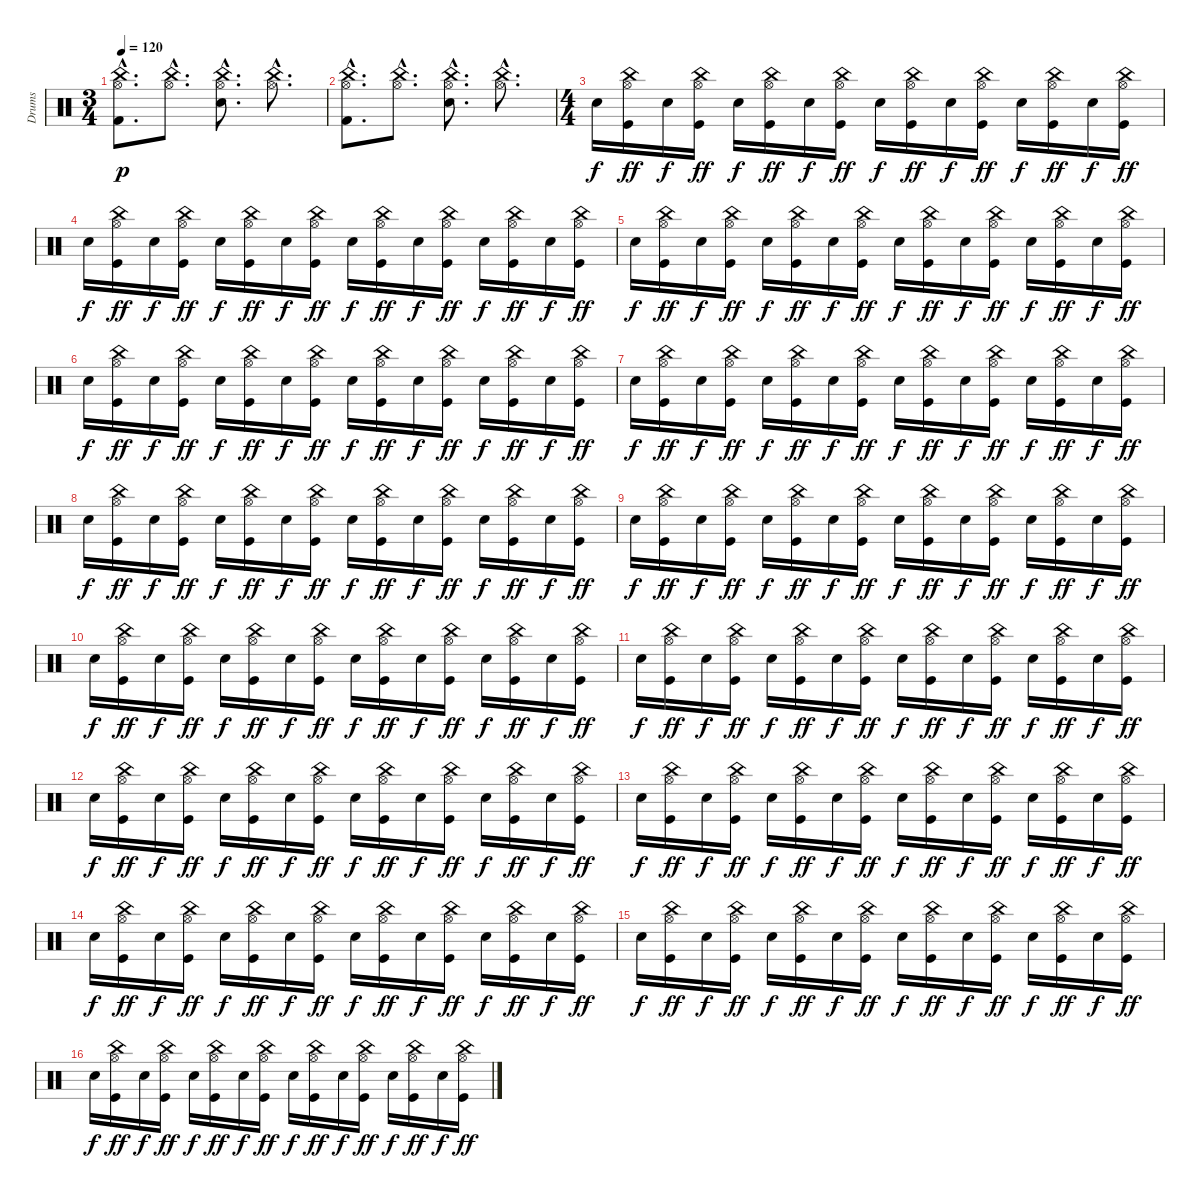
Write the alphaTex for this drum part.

\track ("Drums" "Drums") {instrument percussion}
\staff {score}
\articulation defaults
\ts (3 4)
\tempo 120
\clef neutral
\ks c
("China (hit)"{hac} "Hi-Hat (open)"{hac} "Kick (hit) 2"{hac}).8{d dy p} ("China (hit)"{hac} "Hi-Hat (open)"{hac}).8{d} ("China (hit)"{hac} "Hi-Hat (open)"{hac} "Electric Snare (hit)"{hac}).8{d} ("China (hit)"{hac} "Hi-Hat (open)"{hac}).8{d} |
("China (hit)"{hac} "Hi-Hat (open)"{hac} "Kick (hit) 2"{hac}).8{d} ("China (hit)"{hac} "Hi-Hat (open)"{hac}).8{d} ("China (hit)"{hac} "Hi-Hat (open)"{hac} "Electric Snare (hit)"{hac}).8{d} ("China (hit)"{hac} "Hi-Hat (open)"{hac}).8{d} |
\ts (4 4)
"Electric Snare (hit)".16{dy f} ("China (hit)" "Hi-Hat (open)" "Kick (hit)").16{dy ff} "Electric Snare (hit)".16{dy f} ("China (hit)" "Hi-Hat (open)" "Kick (hit)").16{dy ff} "Electric Snare (hit)".16{dy f} ("China (hit)" "Hi-Hat (open)" "Kick (hit)").16{dy ff} "Electric Snare (hit)".16{dy f} ("China (hit)" "Hi-Hat (open)" "Kick (hit)").16{dy ff} "Electric Snare (hit)".16{dy f} ("China (hit)" "Hi-Hat (open)" "Kick (hit)").16{dy ff} "Electric Snare (hit)".16{dy f} ("China (hit)" "Hi-Hat (open)" "Kick (hit)").16{dy ff} "Electric Snare (hit)".16{dy f} ("China (hit)" "Hi-Hat (open)" "Kick (hit)").16{dy ff} "Electric Snare (hit)".16{dy f} ("China (hit)" "Hi-Hat (open)" "Kick (hit)").16{dy ff} |
"Electric Snare (hit)".16{dy f} ("China (hit)" "Hi-Hat (open)" "Kick (hit)").16{dy ff} "Electric Snare (hit)".16{dy f} ("China (hit)" "Hi-Hat (open)" "Kick (hit)").16{dy ff} "Electric Snare (hit)".16{dy f} ("China (hit)" "Hi-Hat (open)" "Kick (hit)").16{dy ff} "Electric Snare (hit)".16{dy f} ("China (hit)" "Hi-Hat (open)" "Kick (hit)").16{dy ff} "Electric Snare (hit)".16{dy f} ("China (hit)" "Hi-Hat (open)" "Kick (hit)").16{dy ff} "Electric Snare (hit)".16{dy f} ("China (hit)" "Hi-Hat (open)" "Kick (hit)").16{dy ff} "Electric Snare (hit)".16{dy f} ("China (hit)" "Hi-Hat (open)" "Kick (hit)").16{dy ff} "Electric Snare (hit)".16{dy f} ("China (hit)" "Hi-Hat (open)" "Kick (hit)").16{dy ff} |
"Electric Snare (hit)".16{dy f} ("China (hit)" "Hi-Hat (open)" "Kick (hit)").16{dy ff} "Electric Snare (hit)".16{dy f} ("China (hit)" "Hi-Hat (open)" "Kick (hit)").16{dy ff} "Electric Snare (hit)".16{dy f} ("China (hit)" "Hi-Hat (open)" "Kick (hit)").16{dy ff} "Electric Snare (hit)".16{dy f} ("China (hit)" "Hi-Hat (open)" "Kick (hit)").16{dy ff} "Electric Snare (hit)".16{dy f} ("China (hit)" "Hi-Hat (open)" "Kick (hit)").16{dy ff} "Electric Snare (hit)".16{dy f} ("China (hit)" "Hi-Hat (open)" "Kick (hit)").16{dy ff} "Electric Snare (hit)".16{dy f} ("China (hit)" "Hi-Hat (open)" "Kick (hit)").16{dy ff} "Electric Snare (hit)".16{dy f} ("China (hit)" "Hi-Hat (open)" "Kick (hit)").16{dy ff} |
"Electric Snare (hit)".16{dy f} ("China (hit)" "Hi-Hat (open)" "Kick (hit)").16{dy ff} "Electric Snare (hit)".16{dy f} ("China (hit)" "Hi-Hat (open)" "Kick (hit)").16{dy ff} "Electric Snare (hit)".16{dy f} ("China (hit)" "Hi-Hat (open)" "Kick (hit)").16{dy ff} "Electric Snare (hit)".16{dy f} ("China (hit)" "Hi-Hat (open)" "Kick (hit)").16{dy ff} "Electric Snare (hit)".16{dy f} ("China (hit)" "Hi-Hat (open)" "Kick (hit)").16{dy ff} "Electric Snare (hit)".16{dy f} ("China (hit)" "Hi-Hat (open)" "Kick (hit)").16{dy ff} "Electric Snare (hit)".16{dy f} ("China (hit)" "Hi-Hat (open)" "Kick (hit)").16{dy ff} "Electric Snare (hit)".16{dy f} ("China (hit)" "Hi-Hat (open)" "Kick (hit)").16{dy ff} |
"Electric Snare (hit)".16{dy f} ("China (hit)" "Hi-Hat (open)" "Kick (hit)").16{dy ff} "Electric Snare (hit)".16{dy f} ("China (hit)" "Hi-Hat (open)" "Kick (hit)").16{dy ff} "Electric Snare (hit)".16{dy f} ("China (hit)" "Hi-Hat (open)" "Kick (hit)").16{dy ff} "Electric Snare (hit)".16{dy f} ("China (hit)" "Hi-Hat (open)" "Kick (hit)").16{dy ff} "Electric Snare (hit)".16{dy f} ("China (hit)" "Hi-Hat (open)" "Kick (hit)").16{dy ff} "Electric Snare (hit)".16{dy f} ("China (hit)" "Hi-Hat (open)" "Kick (hit)").16{dy ff} "Electric Snare (hit)".16{dy f} ("China (hit)" "Hi-Hat (open)" "Kick (hit)").16{dy ff} "Electric Snare (hit)".16{dy f} ("China (hit)" "Hi-Hat (open)" "Kick (hit)").16{dy ff} |
"Electric Snare (hit)".16{dy f} ("China (hit)" "Hi-Hat (open)" "Kick (hit)").16{dy ff} "Electric Snare (hit)".16{dy f} ("China (hit)" "Hi-Hat (open)" "Kick (hit)").16{dy ff} "Electric Snare (hit)".16{dy f} ("China (hit)" "Hi-Hat (open)" "Kick (hit)").16{dy ff} "Electric Snare (hit)".16{dy f} ("China (hit)" "Hi-Hat (open)" "Kick (hit)").16{dy ff} "Electric Snare (hit)".16{dy f} ("China (hit)" "Hi-Hat (open)" "Kick (hit)").16{dy ff} "Electric Snare (hit)".16{dy f} ("China (hit)" "Hi-Hat (open)" "Kick (hit)").16{dy ff} "Electric Snare (hit)".16{dy f} ("China (hit)" "Hi-Hat (open)" "Kick (hit)").16{dy ff} "Electric Snare (hit)".16{dy f} ("China (hit)" "Hi-Hat (open)" "Kick (hit)").16{dy ff} |
"Electric Snare (hit)".16{dy f} ("China (hit)" "Hi-Hat (open)" "Kick (hit)").16{dy ff} "Electric Snare (hit)".16{dy f} ("China (hit)" "Hi-Hat (open)" "Kick (hit)").16{dy ff} "Electric Snare (hit)".16{dy f} ("China (hit)" "Hi-Hat (open)" "Kick (hit)").16{dy ff} "Electric Snare (hit)".16{dy f} ("China (hit)" "Hi-Hat (open)" "Kick (hit)").16{dy ff} "Electric Snare (hit)".16{dy f} ("China (hit)" "Hi-Hat (open)" "Kick (hit)").16{dy ff} "Electric Snare (hit)".16{dy f} ("China (hit)" "Hi-Hat (open)" "Kick (hit)").16{dy ff} "Electric Snare (hit)".16{dy f} ("China (hit)" "Hi-Hat (open)" "Kick (hit)").16{dy ff} "Electric Snare (hit)".16{dy f} ("China (hit)" "Hi-Hat (open)" "Kick (hit)").16{dy ff} |
"Electric Snare (hit)".16{dy f} ("China (hit)" "Hi-Hat (open)" "Kick (hit)").16{dy ff} "Electric Snare (hit)".16{dy f} ("China (hit)" "Hi-Hat (open)" "Kick (hit)").16{dy ff} "Electric Snare (hit)".16{dy f} ("China (hit)" "Hi-Hat (open)" "Kick (hit)").16{dy ff} "Electric Snare (hit)".16{dy f} ("China (hit)" "Hi-Hat (open)" "Kick (hit)").16{dy ff} "Electric Snare (hit)".16{dy f} ("China (hit)" "Hi-Hat (open)" "Kick (hit)").16{dy ff} "Electric Snare (hit)".16{dy f} ("China (hit)" "Hi-Hat (open)" "Kick (hit)").16{dy ff} "Electric Snare (hit)".16{dy f} ("China (hit)" "Hi-Hat (open)" "Kick (hit)").16{dy ff} "Electric Snare (hit)".16{dy f} ("China (hit)" "Hi-Hat (open)" "Kick (hit)").16{dy ff} |
"Electric Snare (hit)".16{dy f} ("China (hit)" "Hi-Hat (open)" "Kick (hit)").16{dy ff} "Electric Snare (hit)".16{dy f} ("China (hit)" "Hi-Hat (open)" "Kick (hit)").16{dy ff} "Electric Snare (hit)".16{dy f} ("China (hit)" "Hi-Hat (open)" "Kick (hit)").16{dy ff} "Electric Snare (hit)".16{dy f} ("China (hit)" "Hi-Hat (open)" "Kick (hit)").16{dy ff} "Electric Snare (hit)".16{dy f} ("China (hit)" "Hi-Hat (open)" "Kick (hit)").16{dy ff} "Electric Snare (hit)".16{dy f} ("China (hit)" "Hi-Hat (open)" "Kick (hit)").16{dy ff} "Electric Snare (hit)".16{dy f} ("China (hit)" "Hi-Hat (open)" "Kick (hit)").16{dy ff} "Electric Snare (hit)".16{dy f} ("China (hit)" "Hi-Hat (open)" "Kick (hit)").16{dy ff} |
"Electric Snare (hit)".16{dy f} ("China (hit)" "Hi-Hat (open)" "Kick (hit)").16{dy ff} "Electric Snare (hit)".16{dy f} ("China (hit)" "Hi-Hat (open)" "Kick (hit)").16{dy ff} "Electric Snare (hit)".16{dy f} ("China (hit)" "Hi-Hat (open)" "Kick (hit)").16{dy ff} "Electric Snare (hit)".16{dy f} ("China (hit)" "Hi-Hat (open)" "Kick (hit)").16{dy ff} "Electric Snare (hit)".16{dy f} ("China (hit)" "Hi-Hat (open)" "Kick (hit)").16{dy ff} "Electric Snare (hit)".16{dy f} ("China (hit)" "Hi-Hat (open)" "Kick (hit)").16{dy ff} "Electric Snare (hit)".16{dy f} ("China (hit)" "Hi-Hat (open)" "Kick (hit)").16{dy ff} "Electric Snare (hit)".16{dy f} ("China (hit)" "Hi-Hat (open)" "Kick (hit)").16{dy ff} |
"Electric Snare (hit)".16{dy f} ("China (hit)" "Hi-Hat (open)" "Kick (hit)").16{dy ff} "Electric Snare (hit)".16{dy f} ("China (hit)" "Hi-Hat (open)" "Kick (hit)").16{dy ff} "Electric Snare (hit)".16{dy f} ("China (hit)" "Hi-Hat (open)" "Kick (hit)").16{dy ff} "Electric Snare (hit)".16{dy f} ("China (hit)" "Hi-Hat (open)" "Kick (hit)").16{dy ff} "Electric Snare (hit)".16{dy f} ("China (hit)" "Hi-Hat (open)" "Kick (hit)").16{dy ff} "Electric Snare (hit)".16{dy f} ("China (hit)" "Hi-Hat (open)" "Kick (hit)").16{dy ff} "Electric Snare (hit)".16{dy f} ("China (hit)" "Hi-Hat (open)" "Kick (hit)").16{dy ff} "Electric Snare (hit)".16{dy f} ("China (hit)" "Hi-Hat (open)" "Kick (hit)").16{dy ff} |
"Electric Snare (hit)".16{dy f} ("China (hit)" "Hi-Hat (open)" "Kick (hit)").16{dy ff} "Electric Snare (hit)".16{dy f} ("China (hit)" "Hi-Hat (open)" "Kick (hit)").16{dy ff} "Electric Snare (hit)".16{dy f} ("China (hit)" "Hi-Hat (open)" "Kick (hit)").16{dy ff} "Electric Snare (hit)".16{dy f} ("China (hit)" "Hi-Hat (open)" "Kick (hit)").16{dy ff} "Electric Snare (hit)".16{dy f} ("China (hit)" "Hi-Hat (open)" "Kick (hit)").16{dy ff} "Electric Snare (hit)".16{dy f} ("China (hit)" "Hi-Hat (open)" "Kick (hit)").16{dy ff} "Electric Snare (hit)".16{dy f} ("China (hit)" "Hi-Hat (open)" "Kick (hit)").16{dy ff} "Electric Snare (hit)".16{dy f} ("China (hit)" "Hi-Hat (open)" "Kick (hit)").16{dy ff} |
"Electric Snare (hit)".16{dy f} ("China (hit)" "Hi-Hat (open)" "Kick (hit)").16{dy ff} "Electric Snare (hit)".16{dy f} ("China (hit)" "Hi-Hat (open)" "Kick (hit)").16{dy ff} "Electric Snare (hit)".16{dy f} ("China (hit)" "Hi-Hat (open)" "Kick (hit)").16{dy ff} "Electric Snare (hit)".16{dy f} ("China (hit)" "Hi-Hat (open)" "Kick (hit)").16{dy ff} "Electric Snare (hit)".16{dy f} ("China (hit)" "Hi-Hat (open)" "Kick (hit)").16{dy ff} "Electric Snare (hit)".16{dy f} ("China (hit)" "Hi-Hat (open)" "Kick (hit)").16{dy ff} "Electric Snare (hit)".16{dy f} ("China (hit)" "Hi-Hat (open)" "Kick (hit)").16{dy ff} "Electric Snare (hit)".16{dy f} ("China (hit)" "Hi-Hat (open)" "Kick (hit)").16{dy ff} |
"Electric Snare (hit)".16{dy f} ("China (hit)" "Hi-Hat (open)" "Kick (hit)").16{dy ff} "Electric Snare (hit)".16{dy f} ("China (hit)" "Hi-Hat (open)" "Kick (hit)").16{dy ff} "Electric Snare (hit)".16{dy f} ("China (hit)" "Hi-Hat (open)" "Kick (hit)").16{dy ff} "Electric Snare (hit)".16{dy f} ("China (hit)" "Hi-Hat (open)" "Kick (hit)").16{dy ff} "Electric Snare (hit)".16{dy f} ("China (hit)" "Hi-Hat (open)" "Kick (hit)").16{dy ff} "Electric Snare (hit)".16{dy f} ("China (hit)" "Hi-Hat (open)" "Kick (hit)").16{dy ff} "Electric Snare (hit)".16{dy f} ("China (hit)" "Hi-Hat (open)" "Kick (hit)").16{dy ff} "Electric Snare (hit)".16{dy f} ("China (hit)" "Hi-Hat (open)" "Kick (hit)").16{dy ff}
